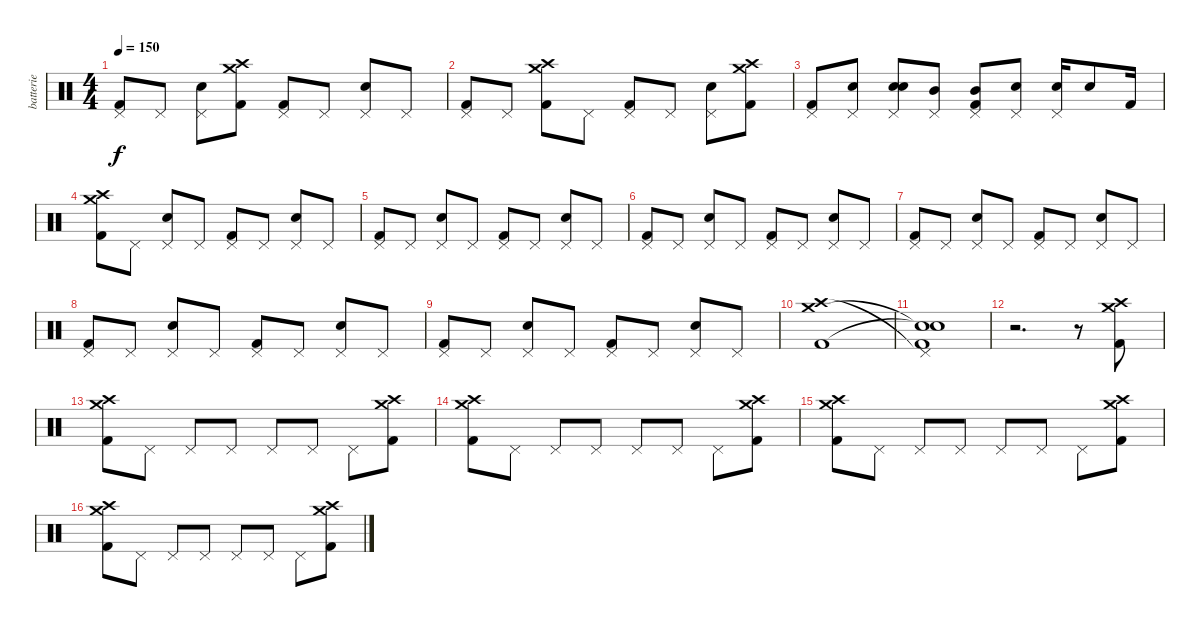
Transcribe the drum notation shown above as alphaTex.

\track ("batterie" "batterie") {instrument percussion}
\staff {score}
\articulation defaults
\ts (4 4)
\tempo 150
\clef neutral
\ks c
("Pedal Hi-Hat (hit)" "Kick (hit) 2").8{dy f} "Pedal Hi-Hat (hit)".8 ("Pedal Hi-Hat (hit)" "Snare (hit) 2").8 ("Crash high (hit)" "Crash medium (hit)" "Kick (hit) 2").8 ("Pedal Hi-Hat (hit)" "Kick (hit) 2").8 "Pedal Hi-Hat (hit)".8 ("Pedal Hi-Hat (hit)" "Snare (hit) 2").8 "Pedal Hi-Hat (hit)".8 |
("Pedal Hi-Hat (hit)" "Kick (hit) 2").8 "Pedal Hi-Hat (hit)".8 ("Crash high (hit)" "Crash medium (hit)" "Kick (hit) 2").8 "Pedal Hi-Hat (hit)".8 ("Pedal Hi-Hat (hit)" "Kick (hit) 2").8 "Pedal Hi-Hat (hit)".8 ("Pedal Hi-Hat (hit)" "Snare (hit) 2").8 ("Crash high (hit)" "Crash medium (hit)" "Kick (hit) 2").8 |
("Pedal Hi-Hat (hit)" "Kick (hit) 2").8 ("Pedal Hi-Hat (hit)" "Snare (hit) 2").8 ("Pedal Hi-Hat (hit)" "Snare (hit) 2" "Snare (hit) 2").8 ("Pedal Hi-Hat (hit)" "Mid Tom (hit)").8 ("Pedal Hi-Hat (hit)" "Mid Tom (hit)" "Kick (hit) 2").8 ("Pedal Hi-Hat (hit)" "Snare (hit) 2").8 ("Pedal Hi-Hat (hit)" "Snare (hit) 2").16 "Snare (hit) 2".8 "Kick (hit) 2".16 |
("Crash high (hit)" "Crash medium (hit)" "Kick (hit) 2").8 "Pedal Hi-Hat (hit)".8 ("Pedal Hi-Hat (hit)" "Snare (hit) 2").8 "Pedal Hi-Hat (hit)".8 ("Pedal Hi-Hat (hit)" "Kick (hit) 2").8 "Pedal Hi-Hat (hit)".8 ("Pedal Hi-Hat (hit)" "Snare (hit) 2").8 "Pedal Hi-Hat (hit)".8 |
("Pedal Hi-Hat (hit)" "Kick (hit) 2").8 "Pedal Hi-Hat (hit)".8 ("Pedal Hi-Hat (hit)" "Snare (hit) 2").8 "Pedal Hi-Hat (hit)".8 ("Pedal Hi-Hat (hit)" "Kick (hit) 2").8 "Pedal Hi-Hat (hit)".8 ("Pedal Hi-Hat (hit)" "Snare (hit) 2").8 "Pedal Hi-Hat (hit)".8 |
("Pedal Hi-Hat (hit)" "Kick (hit) 2").8 "Pedal Hi-Hat (hit)".8 ("Pedal Hi-Hat (hit)" "Snare (hit) 2").8 "Pedal Hi-Hat (hit)".8 ("Pedal Hi-Hat (hit)" "Kick (hit) 2").8 "Pedal Hi-Hat (hit)".8 ("Pedal Hi-Hat (hit)" "Snare (hit) 2").8 "Pedal Hi-Hat (hit)".8 |
("Pedal Hi-Hat (hit)" "Kick (hit) 2").8 "Pedal Hi-Hat (hit)".8 ("Pedal Hi-Hat (hit)" "Snare (hit) 2").8 "Pedal Hi-Hat (hit)".8 ("Pedal Hi-Hat (hit)" "Kick (hit) 2").8 "Pedal Hi-Hat (hit)".8 ("Pedal Hi-Hat (hit)" "Snare (hit) 2").8 "Pedal Hi-Hat (hit)".8 |
("Pedal Hi-Hat (hit)" "Kick (hit) 2").8 "Pedal Hi-Hat (hit)".8 ("Pedal Hi-Hat (hit)" "Snare (hit) 2").8 "Pedal Hi-Hat (hit)".8 ("Pedal Hi-Hat (hit)" "Kick (hit) 2").8 "Pedal Hi-Hat (hit)".8 ("Pedal Hi-Hat (hit)" "Snare (hit) 2").8 "Pedal Hi-Hat (hit)".8 |
("Pedal Hi-Hat (hit)" "Kick (hit) 2").8 "Pedal Hi-Hat (hit)".8 ("Pedal Hi-Hat (hit)" "Snare (hit) 2").8 "Pedal Hi-Hat (hit)".8 ("Pedal Hi-Hat (hit)" "Kick (hit) 2").8 "Pedal Hi-Hat (hit)".8 ("Pedal Hi-Hat (hit)" "Snare (hit) 2").8 "Pedal Hi-Hat (hit)".8 |
("Crash high (hit)" "Crash medium (hit)" "Kick (hit) 2").1 |
("Pedal Hi-Hat (hit)"{t} "Snare (hit)"{t} "Snare (hit)"{t} "Kick (hit) 2").1 |
r.2{d} r.8 ("Crash high (hit)" "Crash medium (hit)" "Kick (hit) 2").8 |
("Crash high (hit)" "Crash medium (hit)" "Kick (hit) 2").8 "Pedal Hi-Hat (hit)".8 "Pedal Hi-Hat (hit)".8 "Pedal Hi-Hat (hit)".8 "Pedal Hi-Hat (hit)".8 "Pedal Hi-Hat (hit)".8 "Pedal Hi-Hat (hit)".8 ("Crash high (hit)" "Crash medium (hit)" "Kick (hit) 2").8 |
("Crash high (hit)" "Crash medium (hit)" "Kick (hit) 2").8 "Pedal Hi-Hat (hit)".8 "Pedal Hi-Hat (hit)".8 "Pedal Hi-Hat (hit)".8 "Pedal Hi-Hat (hit)".8 "Pedal Hi-Hat (hit)".8 "Pedal Hi-Hat (hit)".8 ("Crash high (hit)" "Crash medium (hit)" "Kick (hit) 2").8 |
("Crash high (hit)" "Crash medium (hit)" "Kick (hit) 2").8 "Pedal Hi-Hat (hit)".8 "Pedal Hi-Hat (hit)".8 "Pedal Hi-Hat (hit)".8 "Pedal Hi-Hat (hit)".8 "Pedal Hi-Hat (hit)".8 "Pedal Hi-Hat (hit)".8 ("Crash high (hit)" "Crash medium (hit)" "Kick (hit) 2").8 |
("Crash high (hit)" "Crash medium (hit)" "Kick (hit) 2").8 "Pedal Hi-Hat (hit)".8 "Pedal Hi-Hat (hit)".8 "Pedal Hi-Hat (hit)".8 "Pedal Hi-Hat (hit)".8 "Pedal Hi-Hat (hit)".8 "Pedal Hi-Hat (hit)".8 ("Crash high (hit)" "Crash medium (hit)" "Kick (hit) 2").8
